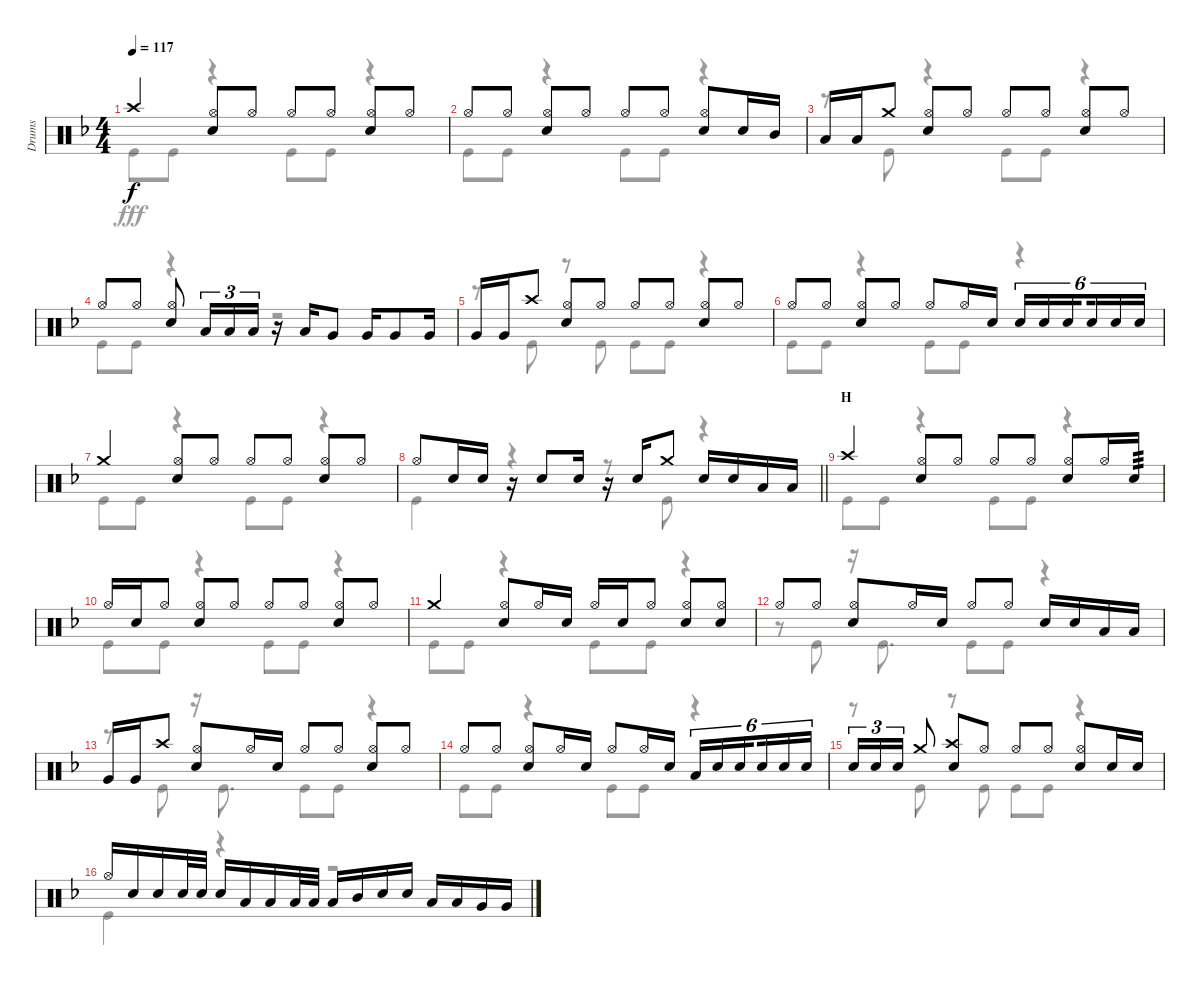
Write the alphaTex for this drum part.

\track ("Drums" "Drums") {instrument percussion}
\staff {score}
\articulation defaults
\voice
\ts (4 4)
\tempo 117
\clef neutral
\ks f "Crash high (hit)".4{dy f}
("Hi-Hat (open)" "Snare (hit) 2").8 "Hi-Hat (open)".8 "Hi-Hat (open)".8 "Hi-Hat (open)".8 ("Hi-Hat (open)" "Snare (hit) 2").8 "Hi-Hat (open)".8 |
"Hi-Hat (open)".8 "Hi-Hat (open)".8 ("Hi-Hat (open)" "Snare (hit) 2").8 "Hi-Hat (open)".8 "Hi-Hat (open)".8 "Hi-Hat (open)".8 ("Hi-Hat (open)" "Snare (hit) 2").8 "Snare (hit) 2".16 "Mid Tom (hit)".16 |
"Low Tom (hit)".16 "Low Tom (hit)".16 "Crash medium (hit)".8 ("Hi-Hat (open)" "Snare (hit) 2").8 "Hi-Hat (open)".8 "Hi-Hat (open)".8 "Hi-Hat (open)".8 ("Hi-Hat (open)" "Snare (hit) 2").8 "Hi-Hat (open)".8 |
"Hi-Hat (open)".8 "Hi-Hat (open)".8 ("Hi-Hat (open)" "Snare (hit) 2").8 "Low Tom (hit)".16{tu (3 2)} "Low Tom (hit)".16{tu (3 2)} "Low Tom (hit)".16{tu (3 2)} r.16 "Low Tom (hit)".16 "Very Low Tom (hit)".8 "Very Low Tom (hit)".16 "Very Low Tom (hit)".8 "Very Low Tom (hit)".16 |
"Very Low Tom (hit)".16 "Very Low Tom (hit)".16 "Crash high (hit)".8 ("Hi-Hat (open)" "Snare (hit) 2").8 "Hi-Hat (open)".8 "Hi-Hat (open)".8 "Hi-Hat (open)".8 ("Hi-Hat (open)" "Snare (hit) 2").8 "Hi-Hat (open)".8 |
"Hi-Hat (open)".8 "Hi-Hat (open)".8 ("Hi-Hat (open)" "Snare (hit) 2").8 "Hi-Hat (open)".8 "Hi-Hat (open)".8 "Hi-Hat (open)".16 "Snare (hit) 2".16 "Snare (hit) 2".16{tu (6 4)} "Snare (hit) 2".16{tu (6 4)} "Snare (hit) 2".16{tu (6 4) beam splitsecondary} "Snare (hit) 2".16{tu (6 4)} "Snare (hit) 2".16{tu (6 4)} "Snare (hit) 2".16{tu (6 4)} |
"Crash medium (hit)".4 ("Hi-Hat (open)" "Snare (hit) 2").8 "Hi-Hat (open)".8 "Hi-Hat (open)".8 "Hi-Hat (open)".8 ("Hi-Hat (open)" "Snare (hit) 2").8 "Hi-Hat (open)".8 |
\barLineRight lightlight "Hi-Hat (open)".8 "Snare (hit) 2".16 "Snare (hit) 2".16
r.16 "Snare (hit) 2".8 "Snare (hit) 2".16 r.16 "Snare (hit) 2".16 "Crash medium (hit)".8 "Snare (hit) 2".16 "Snare (hit) 2".16 "Low Tom (hit)".16 "Low Tom (hit)".16 |
\section ("" "H")
"Crash high (hit)".4 ("Hi-Hat (open)" "Snare (hit) 2").8 "Hi-Hat (open)".8 "Hi-Hat (open)".8 "Hi-Hat (open)".8 ("Hi-Hat (open)" "Snare (hit) 2").8 "Hi-Hat (open)".16 "Snare (hit) 2".16{tp 3} |
"Hi-Hat (open)".16 "Snare (hit) 2".16 "Hi-Hat (open)".8 ("Hi-Hat (open)" "Snare (hit) 2").8 "Hi-Hat (open)".8 "Hi-Hat (open)".8 "Hi-Hat (open)".8 ("Hi-Hat (open)" "Snare (hit) 2").8 "Hi-Hat (open)".8 |
"Crash medium (hit)".4 ("Hi-Hat (open)" "Snare (hit) 2").8 "Hi-Hat (open)".16 "Snare (hit) 2".16 "Hi-Hat (open)".16 "Snare (hit) 2".16 "Hi-Hat (open)".8 ("Hi-Hat (open)" "Snare (hit) 2").8 ("Hi-Hat (open)" "Snare (hit) 2").8 |
"Hi-Hat (open)".8 "Hi-Hat (open)".8 ("Hi-Hat (open)" "Snare (hit) 2").8 "Hi-Hat (open)".16 "Snare (hit) 2".16 "Hi-Hat (open)".8 "Hi-Hat (open)".8 "Snare (hit) 2".16 "Snare (hit) 2".16 "Low Tom (hit)".16 "Low Tom (hit)".16 |
"Very Low Tom (hit)".16 "Very Low Tom (hit)".16 "Crash high (hit)".8 ("Hi-Hat (open)" "Snare (hit) 2").8 "Hi-Hat (open)".16 "Snare (hit) 2".16 "Hi-Hat (open)".8 "Hi-Hat (open)".8 ("Hi-Hat (open)" "Snare (hit) 2").8 "Hi-Hat (open)".8 |
"Hi-Hat (open)".8 "Hi-Hat (open)".8 ("Hi-Hat (open)" "Snare (hit) 2").8 "Hi-Hat (open)".16 "Snare (hit) 2".16 "Hi-Hat (open)".8 "Hi-Hat (open)".16 "Snare (hit) 2".16 "Low Tom (hit)".16{tu (6 4)} "Snare (hit) 2".16{tu (6 4)} "Snare (hit) 2".16{tu (6 4) beam splitsecondary} "Snare (hit) 2".16{tu (6 4)} "Snare (hit) 2".16{tu (6 4)} "Snare (hit) 2".16{tu (6 4)} |
"Snare (hit) 2".16{tu (3 2)} "Snare (hit) 2".16{tu (3 2)} "Snare (hit) 2".16{tu (3 2)} "Crash medium (hit)".8 ("Crash high (hit)" "Snare (hit) 2").8 "Hi-Hat (open)".8 "Hi-Hat (open)".8 "Hi-Hat (open)".8 ("Hi-Hat (open)" "Snare (hit) 2").8 "Snare (hit) 2".16 "Snare (hit) 2".16 |
"Hi-Hat (open)".16 "Snare (hit) 2".16 "Snare (hit) 2".16 "Snare (hit) 2".32 "Snare (hit) 2".32 "Snare (hit) 2".16 "Low Tom (hit)".16 "Low Tom (hit)".16 "Low Tom (hit)".32 "Low Tom (hit)".32 "Low Tom (hit)".16 "Mid Tom (hit)".16 "Snare (hit) 2".16 "Snare (hit) 2".16 "Low Tom (hit)".16 "Low Tom (hit)".16 "Very Low Tom (hit)".16 "Very Low Tom (hit)".16
\voice
\clef neutral
\ottava regular
\simile none
\ks f "Kick (hit)".8{dy fff} "Kick (hit)".8
r.4 "Kick (hit)".8 "Kick (hit)".8 r.4 |
"Kick (hit)".8 "Kick (hit)".8 r.4 "Kick (hit)".8 "Kick (hit)".8 r.4 |
r.8 "Kick (hit)".8 r.4 "Kick (hit)".8 "Kick (hit)".8 r.4 |
"Kick (hit)".8 "Kick (hit)".8 r.4 r.2 |
r.8 "Kick (hit)".8 r.8 "Kick (hit)".8 "Kick (hit)".8 "Kick (hit)".8 r.4 |
"Kick (hit)".8 "Kick (hit)".8 r.4 "Kick (hit)".8 "Kick (hit)".8 r.4 |
"Kick (hit)".8 "Kick (hit)".8 r.4 "Kick (hit)".8 "Kick (hit)".8 r.4 |
\barLineRight lightlight "Kick (hit)".4
r.4 r.8 "Kick (hit)".8 r.4 |
"Kick (hit)".8 "Kick (hit)".8 r.4 "Kick (hit)".8 "Kick (hit)".8 r.4 |
"Kick (hit)".8 "Kick (hit)".8 r.4 "Kick (hit)".8 "Kick (hit)".8 r.4 |
"Kick (hit)".8 "Kick (hit)".8 r.4 "Kick (hit)".8 "Kick (hit)".8 r.4 |
r.8 "Kick (hit)".8 r.16 "Kick (hit)".8{d} "Kick (hit)".8 "Kick (hit)".8 r.4 |
r.8 "Kick (hit)".8 r.16 "Kick (hit)".8{d} "Kick (hit)".8 "Kick (hit)".8 r.4 |
"Kick (hit)".8 "Kick (hit)".8 r.4 "Kick (hit)".8 "Kick (hit)".8 r.4 |
r.8 "Kick (hit)".8 r.8 "Kick (hit)".8 "Kick (hit)".8 "Kick (hit)".8 r.4 |
"Kick (hit)".4 r.4 r.2
